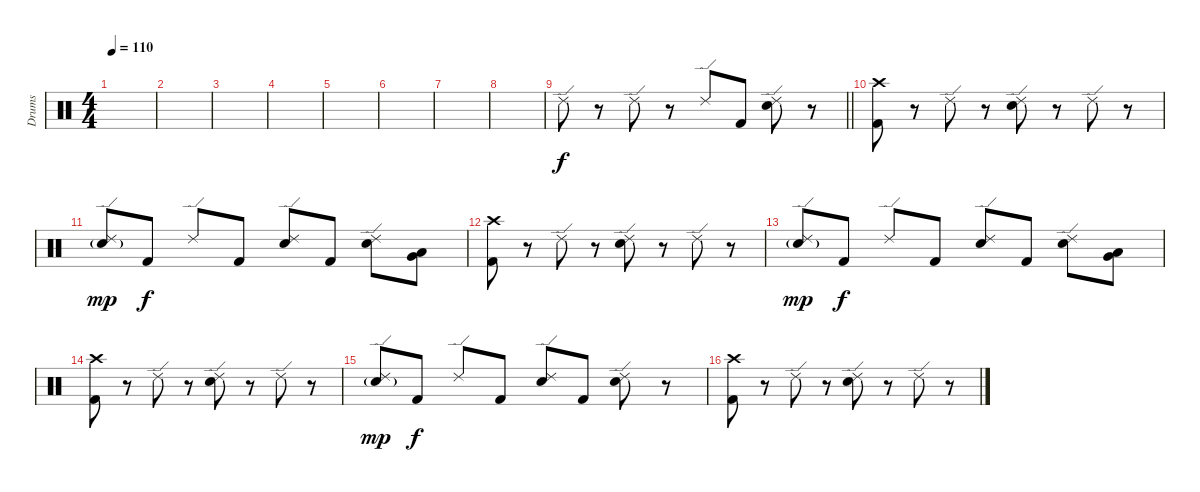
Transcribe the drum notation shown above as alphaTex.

\track ("Drums" "Drums") {instrument percussion}
\staff {score}
\articulation defaults
\ts (4 4)
\tempo 110
\clef neutral
\ks c
|
|
|
|
|
|
|
|
\barLineRight lightlight "Ride (edge) 2".8
r.8 "Ride (edge) 2".8 r.8 "Ride (edge) 2".8 "Kick (hit) 2".8 ("Ride (edge) 2" "Snare (hit) 2").8 r.8 |
("Crash high (hit)" "Kick (hit) 2").8 r.8 "Ride (edge) 2".8 r.8 ("Ride (edge) 2" "Snare (hit) 2").8 r.8 "Ride (edge) 2".8 r.8 |
("Ride (edge) 2" "Snare (hit) 2"{g}).8{dy mp} "Kick (hit) 2".8{dy f} "Ride (edge) 2".8 "Kick (hit) 2".8 ("Ride (edge) 2" "Snare (hit) 2").8 "Kick (hit) 2".8 ("Ride (edge) 2" "Snare (hit) 2").8 ("Very Low Tom (hit)" "Low Floor Tom (hit)").8 |
("Crash high (hit)" "Kick (hit) 2").8 r.8 "Ride (edge) 2".8 r.8 ("Ride (edge) 2" "Snare (hit) 2").8 r.8 "Ride (edge) 2".8 r.8 |
("Ride (edge) 2" "Snare (hit) 2"{g}).8{dy mp} "Kick (hit) 2".8{dy f} "Ride (edge) 2".8 "Kick (hit) 2".8 ("Ride (edge) 2" "Snare (hit) 2").8 "Kick (hit) 2".8 ("Ride (edge) 2" "Snare (hit) 2").8 ("Very Low Tom (hit)" "Low Floor Tom (hit)").8 |
("Crash high (hit)" "Kick (hit) 2").8 r.8 "Ride (edge) 2".8 r.8 ("Ride (edge) 2" "Snare (hit) 2").8 r.8 "Ride (edge) 2".8 r.8 |
("Ride (edge) 2" "Snare (hit) 2"{g}).8{dy mp} "Kick (hit) 2".8{dy f} "Ride (edge) 2".8 "Kick (hit) 2".8 ("Ride (edge) 2" "Snare (hit) 2").8 "Kick (hit) 2".8 ("Ride (edge) 2" "Snare (hit) 2").8 r.8 |
("Crash high (hit)" "Kick (hit) 2").8 r.8 "Ride (edge) 2".8 r.8 ("Ride (edge) 2" "Snare (hit) 2").8 r.8 "Ride (edge) 2".8 r.8
